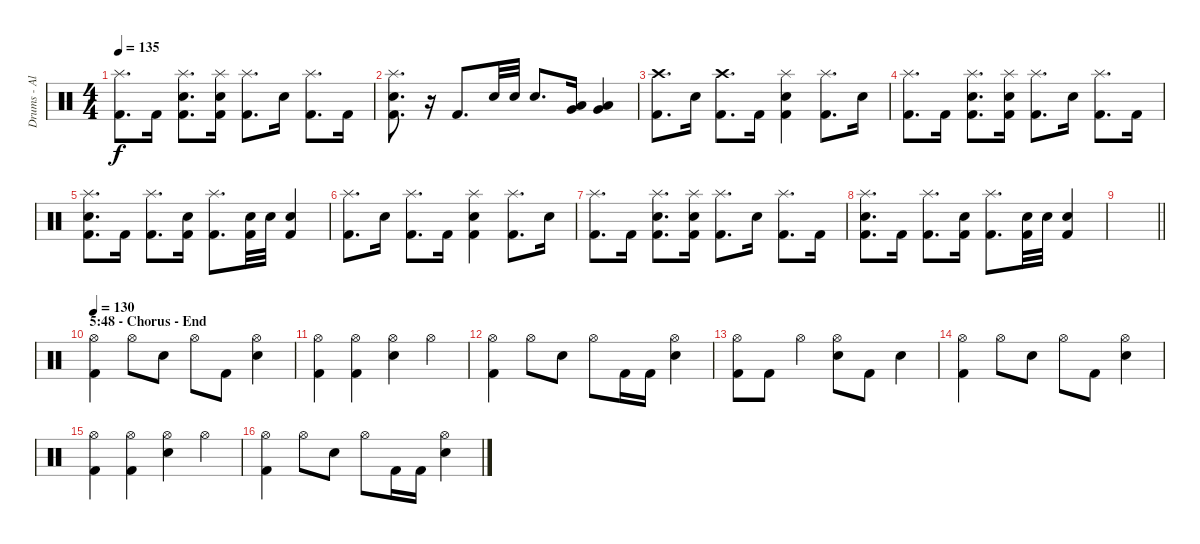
\track ("Drums - Alex Wank" "Drums - Al") {instrument percussion}
\staff {score}
\articulation defaults
\ts (4 4)
\tempo 135
\clef neutral
\ks c
("Splash (hit)" "Kick (hit) 2").8{d dy f} "Kick (hit) 2".16 ("Splash (hit)" "Electric Snare (hit)" "Kick (hit) 2").8{d} ("Splash (hit)" "Electric Snare (hit)" "Kick (hit) 2").16 ("Splash (hit)" "Kick (hit) 2").8{d} "Electric Snare (hit)".16 ("Splash (hit)" "Kick (hit) 2").8{d} "Kick (hit) 2".16 |
("Splash (hit)" "Electric Snare (hit)" "Kick (hit) 2").8{d} r.16 "Kick (hit) 2".8{d} "Electric Snare (hit)".32 "Electric Snare (hit)".32 "Electric Snare (hit)".8{d} ("Very Low Tom (hit)" "Low Floor Tom (hit)").16 ("Very Low Tom (hit)" "Low Floor Tom (hit)").4 |
("Crash high (hit)" "Kick (hit) 2").8{d} "Electric Snare (hit)".16 ("Crash high (hit)" "Kick (hit) 2").8{d} "Kick (hit) 2".16 ("Splash (hit)" "Electric Snare (hit)" "Kick (hit) 2").4 ("Splash (hit)" "Kick (hit) 2").8{d} "Electric Snare (hit)".16 |
("Splash (hit)" "Kick (hit) 2").8{d} "Kick (hit) 2".16 ("Splash (hit)" "Electric Snare (hit)" "Kick (hit) 2").8{d} ("Splash (hit)" "Electric Snare (hit)" "Kick (hit) 2").16 ("Splash (hit)" "Kick (hit) 2").8{d} "Electric Snare (hit)".16 ("Splash (hit)" "Kick (hit) 2").8{d} "Kick (hit) 2".16 |
("Splash (hit)" "Electric Snare (hit)" "Kick (hit) 2").8{d} "Kick (hit) 2".16 ("Splash (hit)" "Kick (hit) 2").8{d} ("Electric Snare (hit)" "Kick (hit) 2").16 ("Splash (hit)" "Kick (hit) 2").8{d} ("Electric Snare (hit)" "Kick (hit) 2").32 "Electric Snare (hit)".32 ("Electric Snare (hit)" "Kick (hit) 2").4 |
("Splash (hit)" "Kick (hit) 2").8{d} "Electric Snare (hit)".16 ("Splash (hit)" "Kick (hit) 2").8{d} "Kick (hit) 2".16 ("Splash (hit)" "Electric Snare (hit)" "Kick (hit) 2").4 ("Splash (hit)" "Kick (hit) 2").8{d} "Electric Snare (hit)".16 |
("Splash (hit)" "Kick (hit) 2").8{d} "Kick (hit) 2".16 ("Splash (hit)" "Electric Snare (hit)" "Kick (hit) 2").8{d} ("Splash (hit)" "Electric Snare (hit)" "Kick (hit) 2").16 ("Splash (hit)" "Kick (hit) 2").8{d} "Electric Snare (hit)".16 ("Splash (hit)" "Kick (hit) 2").8{d} "Kick (hit) 2".16 |
("Splash (hit)" "Electric Snare (hit)" "Kick (hit) 2").8{d} "Kick (hit) 2".16 ("Splash (hit)" "Kick (hit) 2").8{d} ("Electric Snare (hit)" "Kick (hit) 2").16 ("Splash (hit)" "Kick (hit) 2").8{d} ("Electric Snare (hit)" "Kick (hit) 2").32 "Electric Snare (hit)".32 ("Electric Snare (hit)" "Kick (hit) 2").4 |
\barLineRight lightlight
|
\section ("" "5:48 - Chorus - End")
\tempo 130
("Hi-Hat (open)" "Kick (hit) 2").4 "Hi-Hat (open)".8 "Electric Snare (hit)".8 "Hi-Hat (open)".8 "Kick (hit) 2".8 ("Hi-Hat (open)" "Electric Snare (hit)").4 |
("Hi-Hat (open)" "Kick (hit) 2").4 ("Hi-Hat (open)" "Kick (hit) 2").4 ("Hi-Hat (open)" "Electric Snare (hit)").4 "Hi-Hat (open)".4 |
("Hi-Hat (open)" "Kick (hit) 2").4 "Hi-Hat (open)".8 "Electric Snare (hit)".8 "Hi-Hat (open)".8 "Kick (hit) 2".16 "Kick (hit) 2".16 ("Hi-Hat (open)" "Electric Snare (hit)").4 |
("Hi-Hat (open)" "Kick (hit) 2").8 "Kick (hit) 2".8 "Hi-Hat (open)".4 ("Hi-Hat (open)" "Electric Snare (hit)").8 "Kick (hit) 2".8 "Electric Snare (hit)".4 |
("Hi-Hat (open)" "Kick (hit) 2").4 "Hi-Hat (open)".8 "Electric Snare (hit)".8 "Hi-Hat (open)".8 "Kick (hit) 2".8 ("Hi-Hat (open)" "Electric Snare (hit)").4 |
("Hi-Hat (open)" "Kick (hit) 2").4 ("Hi-Hat (open)" "Kick (hit) 2").4 ("Hi-Hat (open)" "Electric Snare (hit)").4 "Hi-Hat (open)".4 |
("Hi-Hat (open)" "Kick (hit) 2").4 "Hi-Hat (open)".8 "Electric Snare (hit)".8 "Hi-Hat (open)".8 "Kick (hit) 2".16 "Kick (hit) 2".16 ("Hi-Hat (open)" "Electric Snare (hit)").4
